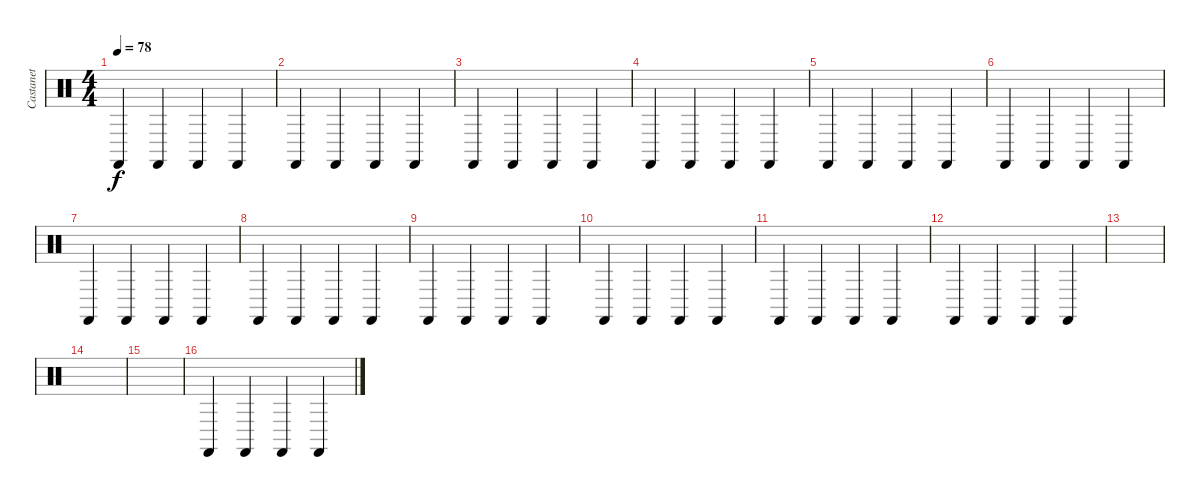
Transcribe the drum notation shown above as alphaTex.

\track ("Castanet" "Castanet") {instrument percussion}
\staff {score}
\articulation defaults
\ts (4 4)
\tempo 78
\clef neutral
\ks c "Castanets (hit)".4{dy f} "Castanets (hit)".4 "Castanets (hit)".4 "Castanets (hit)".4
|
"Castanets (hit)".4 "Castanets (hit)".4 "Castanets (hit)".4 "Castanets (hit)".4 |
"Castanets (hit)".4 "Castanets (hit)".4 "Castanets (hit)".4 "Castanets (hit)".4 |
"Castanets (hit)".4 "Castanets (hit)".4 "Castanets (hit)".4 "Castanets (hit)".4 |
"Castanets (hit)".4 "Castanets (hit)".4 "Castanets (hit)".4 "Castanets (hit)".4 |
"Castanets (hit)".4 "Castanets (hit)".4 "Castanets (hit)".4 "Castanets (hit)".4 |
"Castanets (hit)".4 "Castanets (hit)".4 "Castanets (hit)".4 "Castanets (hit)".4 |
"Castanets (hit)".4 "Castanets (hit)".4 "Castanets (hit)".4 "Castanets (hit)".4 |
"Castanets (hit)".4 "Castanets (hit)".4 "Castanets (hit)".4 "Castanets (hit)".4 |
"Castanets (hit)".4 "Castanets (hit)".4 "Castanets (hit)".4 "Castanets (hit)".4 |
"Castanets (hit)".4 "Castanets (hit)".4 "Castanets (hit)".4 "Castanets (hit)".4 |
"Castanets (hit)".4 "Castanets (hit)".4 "Castanets (hit)".4 "Castanets (hit)".4 |
|
|
|
"Castanets (hit)".4 "Castanets (hit)".4 "Castanets (hit)".4 "Castanets (hit)".4
